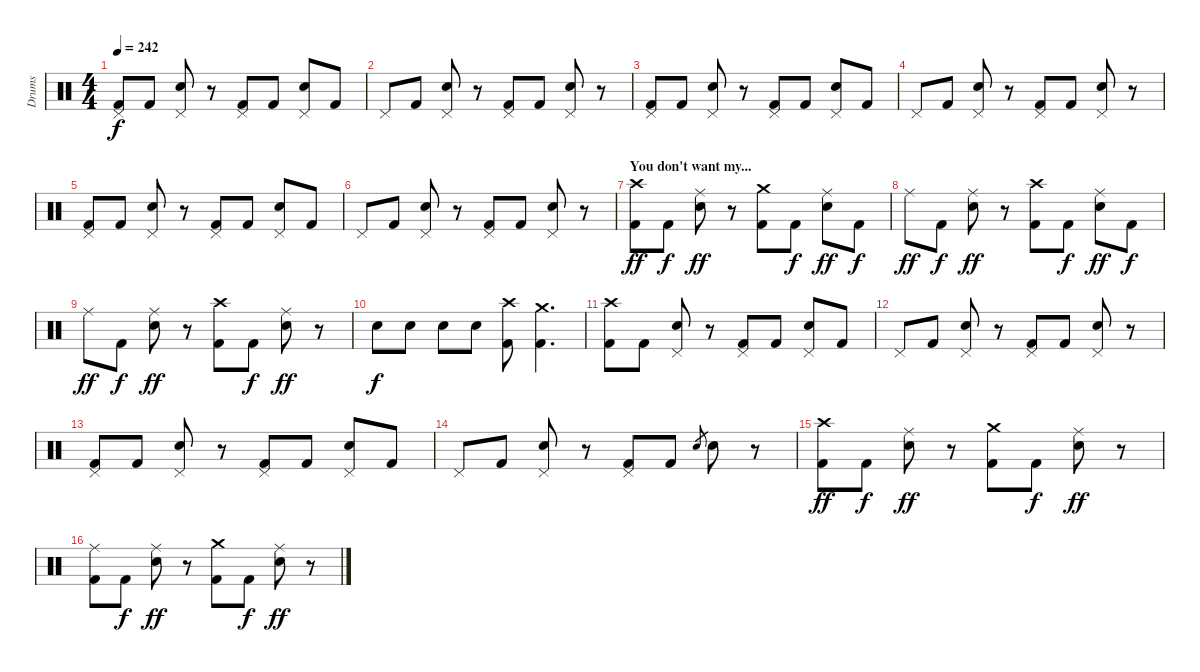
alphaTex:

\track ("Drums" "Drums") {instrument percussion}
\staff {score}
\articulation defaults
\ts (4 4)
\tempo 242
\clef neutral
\ks c
("Pedal Hi-Hat (hit)" "Kick (hit) 2").8{dy f} "Kick (hit) 2".8 ("Pedal Hi-Hat (hit)" "Electric Snare (hit)").8 r.8 ("Pedal Hi-Hat (hit)" "Kick (hit) 2").8 "Kick (hit) 2".8 ("Pedal Hi-Hat (hit)" "Electric Snare (hit)").8 "Kick (hit) 2".8 |
"Pedal Hi-Hat (hit)".8 "Kick (hit) 2".8 ("Pedal Hi-Hat (hit)" "Electric Snare (hit)").8 r.8 ("Pedal Hi-Hat (hit)" "Kick (hit) 2").8 "Kick (hit) 2".8 ("Pedal Hi-Hat (hit)" "Electric Snare (hit)").8 r.8 |
("Pedal Hi-Hat (hit)" "Kick (hit) 2").8 "Kick (hit) 2".8 ("Pedal Hi-Hat (hit)" "Electric Snare (hit)").8 r.8 ("Pedal Hi-Hat (hit)" "Kick (hit) 2").8 "Kick (hit) 2".8 ("Pedal Hi-Hat (hit)" "Electric Snare (hit)").8 "Kick (hit) 2".8 |
"Pedal Hi-Hat (hit)".8 "Kick (hit) 2".8 ("Pedal Hi-Hat (hit)" "Electric Snare (hit)").8 r.8 ("Pedal Hi-Hat (hit)" "Kick (hit) 2").8 "Kick (hit) 2".8 ("Pedal Hi-Hat (hit)" "Electric Snare (hit)").8 r.8 |
("Pedal Hi-Hat (hit)" "Kick (hit) 2").8 "Kick (hit) 2".8 ("Pedal Hi-Hat (hit)" "Electric Snare (hit)").8 r.8 ("Pedal Hi-Hat (hit)" "Kick (hit) 2").8 "Kick (hit) 2".8 ("Pedal Hi-Hat (hit)" "Electric Snare (hit)").8 "Kick (hit) 2".8 |
"Pedal Hi-Hat (hit)".8 "Kick (hit) 2".8 ("Pedal Hi-Hat (hit)" "Electric Snare (hit)").8 r.8 ("Pedal Hi-Hat (hit)" "Kick (hit) 2").8 "Kick (hit) 2".8 ("Pedal Hi-Hat (hit)" "Electric Snare (hit)").8 r.8 |
\section ("" "You don't want my...")
("Crash high (hit)" "Kick (hit) 2").8{dy ff} "Kick (hit) 2".8{dy f} ("Ride (middle)" "Electric Snare (hit)").8{dy ff} r.8 ("Crash medium (hit)" "Kick (hit) 2").8 "Kick (hit) 2".8{dy f} ("Ride (middle)" "Electric Snare (hit)").8{dy ff} "Kick (hit) 2".8{dy f} |
"Ride (middle)".8{dy ff} "Kick (hit) 2".8{dy f} ("Ride (middle)" "Electric Snare (hit)").8{dy ff} r.8 ("Crash high (hit)" "Kick (hit) 2").8 "Kick (hit) 2".8{dy f} ("Ride (middle)" "Electric Snare (hit)").8{dy ff} "Kick (hit) 2".8{dy f} |
"Ride (middle)".8{dy ff} "Kick (hit) 2".8{dy f} ("Ride (middle)" "Electric Snare (hit)").8{dy ff} r.8 ("Crash high (hit)" "Kick (hit) 2").8 "Kick (hit) 2".8{dy f} ("Ride (middle)" "Electric Snare (hit)").8{dy ff} r.8 |
"Electric Snare (hit)".8{dy f} "Electric Snare (hit)".8 "Electric Snare (hit)".8 "Electric Snare (hit)".8 ("Crash high (hit)" "Kick (hit) 2").8 ("Crash medium (hit)" "Kick (hit) 2").4{d} |
("Crash high (hit)" "Kick (hit) 2").8 "Kick (hit) 2".8 ("Pedal Hi-Hat (hit)" "Electric Snare (hit)").8 r.8 ("Pedal Hi-Hat (hit)" "Kick (hit) 2").8 "Kick (hit) 2".8 ("Pedal Hi-Hat (hit)" "Electric Snare (hit)").8 "Kick (hit) 2".8 |
"Pedal Hi-Hat (hit)".8 "Kick (hit) 2".8 ("Pedal Hi-Hat (hit)" "Electric Snare (hit)").8 r.8 ("Pedal Hi-Hat (hit)" "Kick (hit) 2").8 "Kick (hit) 2".8 ("Pedal Hi-Hat (hit)" "Electric Snare (hit)").8 r.8 |
("Pedal Hi-Hat (hit)" "Kick (hit) 2").8 "Kick (hit) 2".8 ("Pedal Hi-Hat (hit)" "Electric Snare (hit)").8 r.8 ("Pedal Hi-Hat (hit)" "Kick (hit) 2").8 "Kick (hit) 2".8 ("Pedal Hi-Hat (hit)" "Electric Snare (hit)").8 "Kick (hit) 2".8 |
"Pedal Hi-Hat (hit)".8 "Kick (hit) 2".8 ("Pedal Hi-Hat (hit)" "Electric Snare (hit)").8 r.8 ("Pedal Hi-Hat (hit)" "Kick (hit) 2").8 "Kick (hit) 2".8 "Electric Snare (hit)".8{gr} "Electric Snare (hit)".8 r.8 |
("Crash high (hit)" "Kick (hit) 2").8{dy ff} "Kick (hit) 2".8{dy f} ("Ride (middle)" "Electric Snare (hit)").8{dy ff} r.8 ("Crash medium (hit)" "Kick (hit) 2").8 "Kick (hit) 2".8{dy f} ("Ride (middle)" "Electric Snare (hit)").8{dy ff} r.8 |
("Ride (middle)" "Kick (hit) 2").8 "Kick (hit) 2".8{dy f} ("Ride (middle)" "Electric Snare (hit)").8{dy ff} r.8 ("Crash medium (hit)" "Kick (hit) 2").8 "Kick (hit) 2".8{dy f} ("Ride (middle)" "Electric Snare (hit)").8{dy ff} r.8
